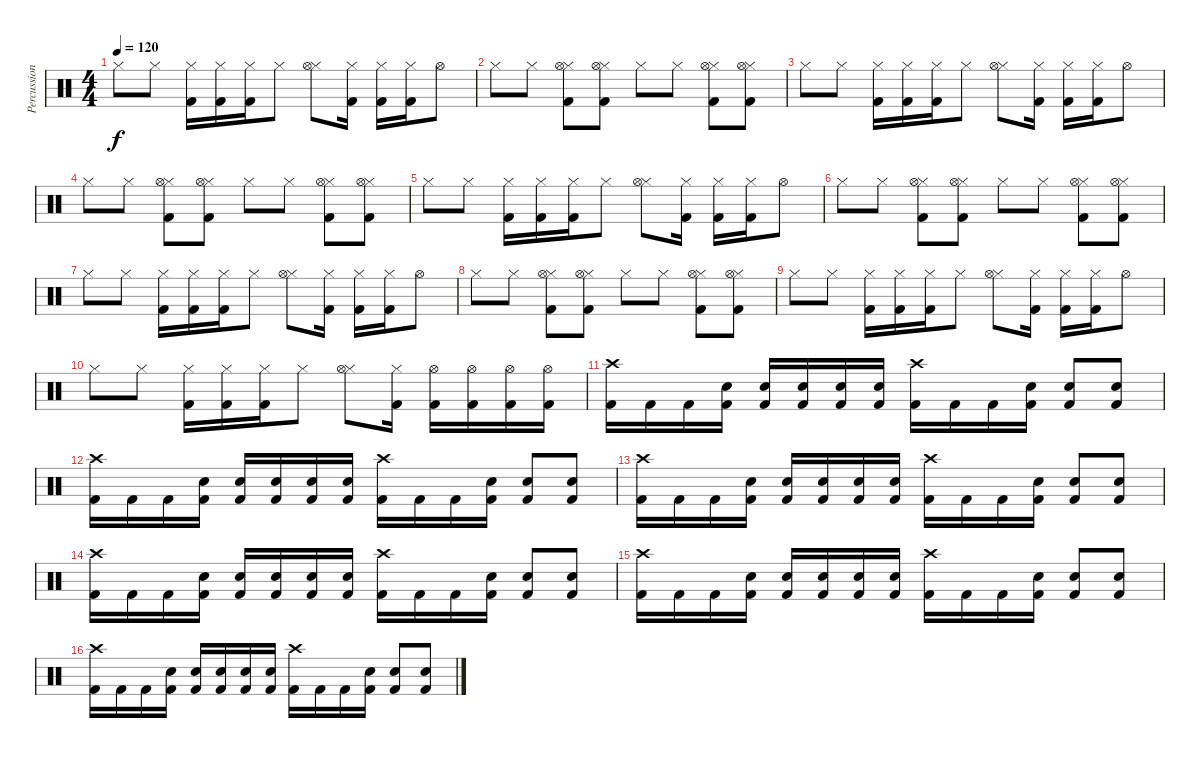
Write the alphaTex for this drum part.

\track ("Percussioni" "Percussion") {instrument percussion}
\staff {score}
\articulation defaults
\ts (4 4)
\tempo 120
\clef neutral
\ks c "Hi-Hat (closed)".8{dy f} "Hi-Hat (closed)".8
("Hi-Hat (closed)" "Kick (hit) 2").16 ("Hi-Hat (closed)" "Kick (hit) 2").16 ("Hi-Hat (closed)" "Kick (hit) 2").16 "Hi-Hat (closed)".8 ("Hi-Hat (closed)" "Hi-Hat (open)").8 ("Hi-Hat (closed)" "Kick (hit) 2").16 ("Hi-Hat (closed)" "Kick (hit) 2").16 ("Hi-Hat (closed)" "Kick (hit) 2").16 "Hi-Hat (open)".8 |
"Hi-Hat (closed)".8 "Hi-Hat (closed)".8 ("Hi-Hat (closed)" "Hi-Hat (open)" "Kick (hit) 2").8 ("Hi-Hat (closed)" "Hi-Hat (open)" "Kick (hit) 2").8 "Hi-Hat (closed)".8 "Hi-Hat (closed)".8 ("Hi-Hat (closed)" "Hi-Hat (open)" "Kick (hit) 2").8 ("Hi-Hat (closed)" "Hi-Hat (open)" "Kick (hit) 2").8 |
"Hi-Hat (closed)".8 "Hi-Hat (closed)".8 ("Hi-Hat (closed)" "Kick (hit) 2").16 ("Hi-Hat (closed)" "Kick (hit) 2").16 ("Hi-Hat (closed)" "Kick (hit) 2").16 "Hi-Hat (closed)".8 ("Hi-Hat (closed)" "Hi-Hat (open)").8 ("Hi-Hat (closed)" "Kick (hit) 2").16 ("Hi-Hat (closed)" "Kick (hit) 2").16 ("Hi-Hat (closed)" "Kick (hit) 2").16 "Hi-Hat (open)".8 |
"Hi-Hat (closed)".8 "Hi-Hat (closed)".8 ("Hi-Hat (closed)" "Hi-Hat (open)" "Kick (hit) 2").8 ("Hi-Hat (closed)" "Hi-Hat (open)" "Kick (hit) 2").8 "Hi-Hat (closed)".8 "Hi-Hat (closed)".8 ("Hi-Hat (closed)" "Hi-Hat (open)" "Kick (hit) 2").8 ("Hi-Hat (closed)" "Hi-Hat (open)" "Kick (hit) 2").8 |
"Hi-Hat (closed)".8 "Hi-Hat (closed)".8 ("Hi-Hat (closed)" "Kick (hit) 2").16 ("Hi-Hat (closed)" "Kick (hit) 2").16 ("Hi-Hat (closed)" "Kick (hit) 2").16 "Hi-Hat (closed)".8 ("Hi-Hat (closed)" "Hi-Hat (open)").8 ("Hi-Hat (closed)" "Kick (hit) 2").16 ("Hi-Hat (closed)" "Kick (hit) 2").16 ("Hi-Hat (closed)" "Kick (hit) 2").16 "Hi-Hat (open)".8 |
"Hi-Hat (closed)".8 "Hi-Hat (closed)".8 ("Hi-Hat (closed)" "Hi-Hat (open)" "Kick (hit) 2").8 ("Hi-Hat (closed)" "Hi-Hat (open)" "Kick (hit) 2").8 "Hi-Hat (closed)".8 "Hi-Hat (closed)".8 ("Hi-Hat (closed)" "Hi-Hat (open)" "Kick (hit) 2").8 ("Hi-Hat (closed)" "Hi-Hat (open)" "Kick (hit) 2").8 |
"Hi-Hat (closed)".8 "Hi-Hat (closed)".8 ("Hi-Hat (closed)" "Kick (hit) 2").16 ("Hi-Hat (closed)" "Kick (hit) 2").16 ("Hi-Hat (closed)" "Kick (hit) 2").16 "Hi-Hat (closed)".8 ("Hi-Hat (closed)" "Hi-Hat (open)").8 ("Hi-Hat (closed)" "Kick (hit) 2").16 ("Hi-Hat (closed)" "Kick (hit) 2").16 ("Hi-Hat (closed)" "Kick (hit) 2").16 "Hi-Hat (open)".8 |
"Hi-Hat (closed)".8 "Hi-Hat (closed)".8 ("Hi-Hat (closed)" "Hi-Hat (open)" "Kick (hit) 2").8 ("Hi-Hat (closed)" "Hi-Hat (open)" "Kick (hit) 2").8 "Hi-Hat (closed)".8 "Hi-Hat (closed)".8 ("Hi-Hat (closed)" "Hi-Hat (open)" "Kick (hit) 2").8 ("Hi-Hat (closed)" "Hi-Hat (open)" "Kick (hit) 2").8 |
"Hi-Hat (closed)".8 "Hi-Hat (closed)".8 ("Hi-Hat (closed)" "Kick (hit) 2").16 ("Hi-Hat (closed)" "Kick (hit) 2").16 ("Hi-Hat (closed)" "Kick (hit) 2").16 "Hi-Hat (closed)".8 ("Hi-Hat (closed)" "Hi-Hat (open)").8 ("Hi-Hat (closed)" "Kick (hit) 2").16 ("Hi-Hat (closed)" "Kick (hit) 2").16 ("Hi-Hat (closed)" "Kick (hit) 2").16 "Hi-Hat (open)".8 |
"Hi-Hat (closed)".8 "Hi-Hat (closed)".8 ("Hi-Hat (closed)" "Kick (hit) 2").16 ("Hi-Hat (closed)" "Kick (hit) 2").16 ("Hi-Hat (closed)" "Kick (hit) 2").16 "Hi-Hat (closed)".8 ("Hi-Hat (closed)" "Hi-Hat (open)").8 ("Hi-Hat (closed)" "Kick (hit) 2").16 ("Hi-Hat (open)" "Kick (hit) 2").16 ("Hi-Hat (open)" "Kick (hit) 2").16 ("Hi-Hat (open)" "Kick (hit) 2").16 ("Hi-Hat (open)" "Kick (hit) 2").16 |
("Kick (hit) 2" "Crash high (hit)").16 "Kick (hit) 2".16 "Kick (hit) 2".16 ("Kick (hit) 2" "Electric Snare (hit)").16 ("Kick (hit) 2" "Electric Snare (hit)").16 ("Kick (hit) 2" "Electric Snare (hit)").16 ("Kick (hit) 2" "Electric Snare (hit)").16 ("Kick (hit) 2" "Electric Snare (hit)").16 ("Kick (hit) 2" "Crash high (hit)").16 "Kick (hit) 2".16 "Kick (hit) 2".16 ("Kick (hit) 2" "Electric Snare (hit)").16 ("Kick (hit) 2" "Electric Snare (hit)").8 ("Kick (hit) 2" "Electric Snare (hit)").8 |
("Kick (hit) 2" "Crash high (hit)").16 "Kick (hit) 2".16 "Kick (hit) 2".16 ("Kick (hit) 2" "Electric Snare (hit)").16 ("Kick (hit) 2" "Electric Snare (hit)").16 ("Kick (hit) 2" "Electric Snare (hit)").16 ("Kick (hit) 2" "Electric Snare (hit)").16 ("Kick (hit) 2" "Electric Snare (hit)").16 ("Kick (hit) 2" "Crash high (hit)").16 "Kick (hit) 2".16 "Kick (hit) 2".16 ("Kick (hit) 2" "Electric Snare (hit)").16 ("Kick (hit) 2" "Electric Snare (hit)").8 ("Kick (hit) 2" "Electric Snare (hit)").8 |
("Kick (hit) 2" "Crash high (hit)").16 "Kick (hit) 2".16 "Kick (hit) 2".16 ("Kick (hit) 2" "Electric Snare (hit)").16 ("Kick (hit) 2" "Electric Snare (hit)").16 ("Kick (hit) 2" "Electric Snare (hit)").16 ("Kick (hit) 2" "Electric Snare (hit)").16 ("Kick (hit) 2" "Electric Snare (hit)").16 ("Kick (hit) 2" "Crash high (hit)").16 "Kick (hit) 2".16 "Kick (hit) 2".16 ("Kick (hit) 2" "Electric Snare (hit)").16 ("Kick (hit) 2" "Electric Snare (hit)").8 ("Kick (hit) 2" "Electric Snare (hit)").8 |
("Kick (hit) 2" "Crash high (hit)").16 "Kick (hit) 2".16 "Kick (hit) 2".16 ("Kick (hit) 2" "Electric Snare (hit)").16 ("Kick (hit) 2" "Electric Snare (hit)").16 ("Kick (hit) 2" "Electric Snare (hit)").16 ("Kick (hit) 2" "Electric Snare (hit)").16 ("Kick (hit) 2" "Electric Snare (hit)").16 ("Kick (hit) 2" "Crash high (hit)").16 "Kick (hit) 2".16 "Kick (hit) 2".16 ("Kick (hit) 2" "Electric Snare (hit)").16 ("Kick (hit) 2" "Electric Snare (hit)").8 ("Kick (hit) 2" "Electric Snare (hit)").8 |
("Kick (hit) 2" "Crash high (hit)").16 "Kick (hit) 2".16 "Kick (hit) 2".16 ("Kick (hit) 2" "Electric Snare (hit)").16 ("Kick (hit) 2" "Electric Snare (hit)").16 ("Kick (hit) 2" "Electric Snare (hit)").16 ("Kick (hit) 2" "Electric Snare (hit)").16 ("Kick (hit) 2" "Electric Snare (hit)").16 ("Kick (hit) 2" "Crash high (hit)").16 "Kick (hit) 2".16 "Kick (hit) 2".16 ("Kick (hit) 2" "Electric Snare (hit)").16 ("Kick (hit) 2" "Electric Snare (hit)").8 ("Kick (hit) 2" "Electric Snare (hit)").8 |
("Kick (hit) 2" "Crash high (hit)").16 "Kick (hit) 2".16 "Kick (hit) 2".16 ("Kick (hit) 2" "Electric Snare (hit)").16 ("Kick (hit) 2" "Electric Snare (hit)").16 ("Kick (hit) 2" "Electric Snare (hit)").16 ("Kick (hit) 2" "Electric Snare (hit)").16 ("Kick (hit) 2" "Electric Snare (hit)").16 ("Kick (hit) 2" "Crash high (hit)").16 "Kick (hit) 2".16 "Kick (hit) 2".16 ("Kick (hit) 2" "Electric Snare (hit)").16 ("Kick (hit) 2" "Electric Snare (hit)").8 ("Kick (hit) 2" "Electric Snare (hit)").8
